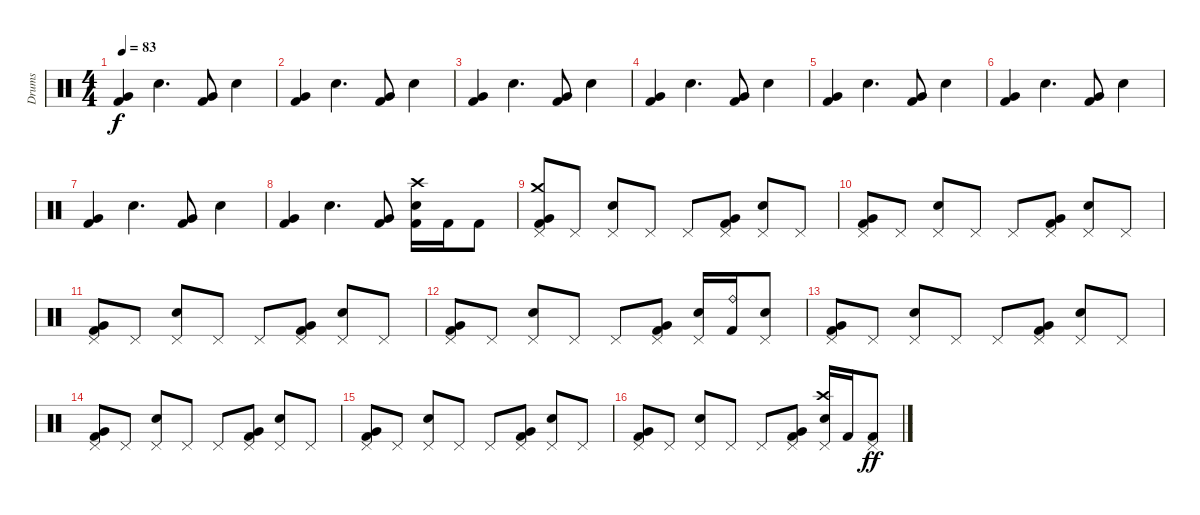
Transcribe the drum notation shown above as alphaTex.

\track ("Drums" "Drums") {instrument percussion}
\staff {score}
\articulation defaults
\ts (4 4)
\tempo 83
\clef neutral
\ks c
("Very Low Tom (hit)" "Kick (hit) 2").4{dy f} "Electric Snare (hit)".4{d} ("Very Low Tom (hit)" "Kick (hit) 2").8 "Electric Snare (hit)".4 |
("Very Low Tom (hit)" "Kick (hit) 2").4 "Electric Snare (hit)".4{d} ("Very Low Tom (hit)" "Kick (hit) 2").8 "Electric Snare (hit)".4 |
("Very Low Tom (hit)" "Kick (hit) 2").4 "Electric Snare (hit)".4{d} ("Very Low Tom (hit)" "Kick (hit) 2").8 "Electric Snare (hit)".4 |
("Very Low Tom (hit)" "Kick (hit) 2").4 "Electric Snare (hit)".4{d} ("Very Low Tom (hit)" "Kick (hit) 2").8 "Electric Snare (hit)".4 |
("Very Low Tom (hit)" "Kick (hit) 2").4 "Electric Snare (hit)".4{d} ("Very Low Tom (hit)" "Kick (hit) 2").8 "Electric Snare (hit)".4 |
("Very Low Tom (hit)" "Kick (hit) 2").4 "Electric Snare (hit)".4{d} ("Very Low Tom (hit)" "Kick (hit) 2").8 "Electric Snare (hit)".4 |
("Very Low Tom (hit)" "Kick (hit) 2").4 "Electric Snare (hit)".4{d} ("Very Low Tom (hit)" "Kick (hit) 2").8 "Electric Snare (hit)".4 |
("Very Low Tom (hit)" "Kick (hit) 2").4 "Electric Snare (hit)".4{d} ("Very Low Tom (hit)" "Kick (hit) 2").8 ("Crash high (hit)" "Electric Snare (hit)" "Kick (hit) 2").16 "Kick (hit) 2".16 "Kick (hit) 2".8 |
("Crash medium (hit)" "Very Low Tom (hit)" "Pedal Hi-Hat (hit)" "Kick (hit) 2").8 "Pedal Hi-Hat (hit)".8 ("Electric Snare (hit)" "Pedal Hi-Hat (hit)").8 "Pedal Hi-Hat (hit)".8 "Pedal Hi-Hat (hit)".8 ("Very Low Tom (hit)" "Pedal Hi-Hat (hit)" "Kick (hit) 2").8 ("Electric Snare (hit)" "Pedal Hi-Hat (hit)").8 "Pedal Hi-Hat (hit)".8 |
("Very Low Tom (hit)" "Pedal Hi-Hat (hit)" "Kick (hit) 2").8 "Pedal Hi-Hat (hit)".8 ("Electric Snare (hit)" "Pedal Hi-Hat (hit)").8 "Pedal Hi-Hat (hit)".8 "Pedal Hi-Hat (hit)".8 ("Very Low Tom (hit)" "Pedal Hi-Hat (hit)" "Kick (hit) 2").8 ("Electric Snare (hit)" "Pedal Hi-Hat (hit)").8 "Pedal Hi-Hat (hit)".8 |
("Very Low Tom (hit)" "Pedal Hi-Hat (hit)" "Kick (hit) 2").8 "Pedal Hi-Hat (hit)".8 ("Electric Snare (hit)" "Pedal Hi-Hat (hit)").8 "Pedal Hi-Hat (hit)".8 "Pedal Hi-Hat (hit)".8 ("Very Low Tom (hit)" "Pedal Hi-Hat (hit)" "Kick (hit) 2").8 ("Electric Snare (hit)" "Pedal Hi-Hat (hit)").8 "Pedal Hi-Hat (hit)".8 |
("Very Low Tom (hit)" "Pedal Hi-Hat (hit)" "Kick (hit) 2").8 "Pedal Hi-Hat (hit)".8 ("Electric Snare (hit)" "Pedal Hi-Hat (hit)").8 "Pedal Hi-Hat (hit)".8 "Pedal Hi-Hat (hit)".8 ("Very Low Tom (hit)" "Pedal Hi-Hat (hit)" "Kick (hit) 2").8 ("Electric Snare (hit)" "Pedal Hi-Hat (hit)").16 ("Ride (bell)" "Kick (hit) 2").16 ("Electric Snare (hit)" "Pedal Hi-Hat (hit)").8 |
("Very Low Tom (hit)" "Pedal Hi-Hat (hit)" "Kick (hit) 2").8 "Pedal Hi-Hat (hit)".8 ("Electric Snare (hit)" "Pedal Hi-Hat (hit)").8 "Pedal Hi-Hat (hit)".8 "Pedal Hi-Hat (hit)".8 ("Very Low Tom (hit)" "Pedal Hi-Hat (hit)" "Kick (hit) 2").8 ("Electric Snare (hit)" "Pedal Hi-Hat (hit)").8 "Pedal Hi-Hat (hit)".8 |
("Very Low Tom (hit)" "Pedal Hi-Hat (hit)" "Kick (hit) 2").8 "Pedal Hi-Hat (hit)".8 ("Electric Snare (hit)" "Pedal Hi-Hat (hit)").8 "Pedal Hi-Hat (hit)".8 "Pedal Hi-Hat (hit)".8 ("Very Low Tom (hit)" "Pedal Hi-Hat (hit)" "Kick (hit) 2").8 ("Electric Snare (hit)" "Pedal Hi-Hat (hit)").8 "Pedal Hi-Hat (hit)".8 |
("Very Low Tom (hit)" "Pedal Hi-Hat (hit)" "Kick (hit) 2").8 "Pedal Hi-Hat (hit)".8 ("Electric Snare (hit)" "Pedal Hi-Hat (hit)").8 "Pedal Hi-Hat (hit)".8 "Pedal Hi-Hat (hit)".8 ("Very Low Tom (hit)" "Pedal Hi-Hat (hit)" "Kick (hit) 2").8 ("Electric Snare (hit)" "Pedal Hi-Hat (hit)").8 "Pedal Hi-Hat (hit)".8 |
("Very Low Tom (hit)" "Pedal Hi-Hat (hit)" "Kick (hit) 2").8 "Pedal Hi-Hat (hit)".8 ("Electric Snare (hit)" "Pedal Hi-Hat (hit)").8 "Pedal Hi-Hat (hit)".8 "Pedal Hi-Hat (hit)".8 ("Very Low Tom (hit)" "Pedal Hi-Hat (hit)" "Kick (hit) 2").8 ("Crash high (hit)" "Electric Snare (hit)" "Pedal Hi-Hat (hit)").16 "Kick (hit) 2".16 ("Pedal Hi-Hat (hit)" "Kick (hit) 2").8{dy ff}
